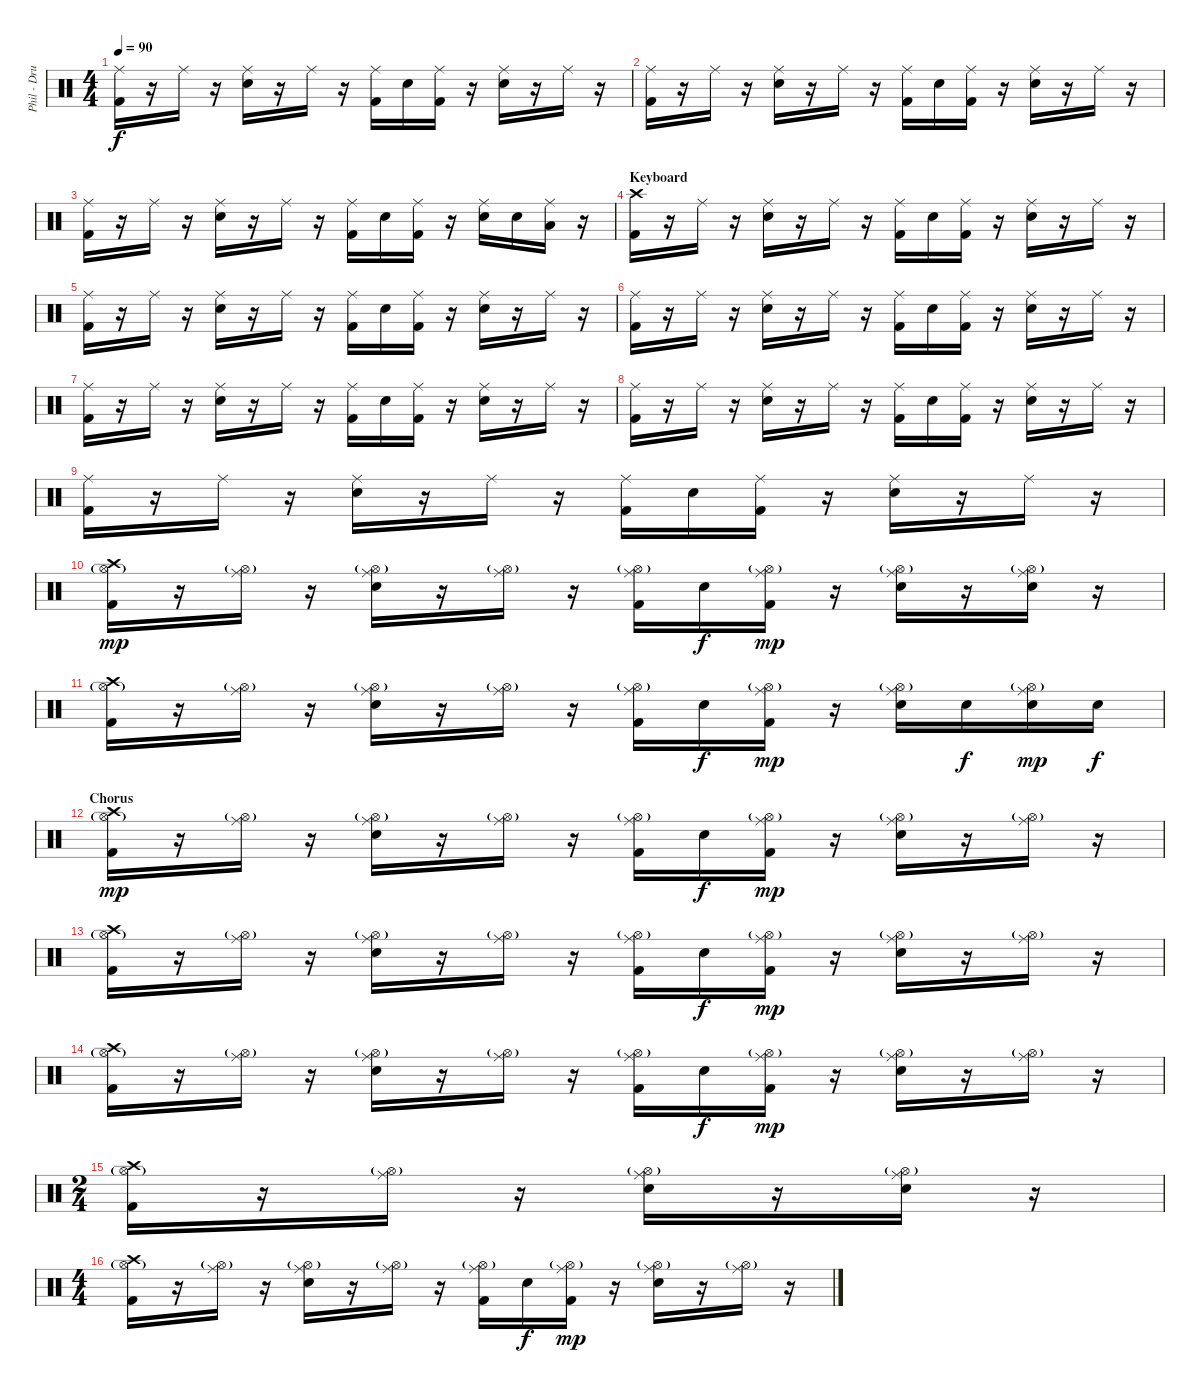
\track ("Phil - Drums" "Phil - Dru") {instrument percussion}
\staff {score}
\articulation defaults
\ts (4 4)
\tempo 90
\clef neutral
\ks c
("Ride (middle)" "Kick (hit) 2").16{dy f} r.16 "Ride (middle)".16 r.16 ("Ride (middle)" "Snare (hit) 2").16 r.16 "Ride (middle)".16 r.16 ("Ride (middle)" "Kick (hit) 2").16 "Snare (hit) 2".16 ("Ride (middle)" "Kick (hit) 2").16 r.16 ("Ride (middle)" "Snare (hit) 2").16 r.16 "Ride (middle)".16 r.16 |
("Ride (middle)" "Kick (hit) 2").16 r.16 "Ride (middle)".16 r.16 ("Ride (middle)" "Snare (hit) 2").16 r.16 "Ride (middle)".16 r.16 ("Ride (middle)" "Kick (hit) 2").16 "Snare (hit) 2".16 ("Ride (middle)" "Kick (hit) 2").16 r.16 ("Ride (middle)" "Snare (hit) 2").16 r.16 "Ride (middle)".16 r.16 |
("Ride (middle)" "Kick (hit) 2").16 r.16 "Ride (middle)".16 r.16 ("Ride (middle)" "Snare (hit) 2").16 r.16 "Ride (middle)".16 r.16 ("Ride (middle)" "Kick (hit) 2").16 "Snare (hit) 2".16 ("Ride (middle)" "Kick (hit) 2").16 r.16 ("Ride (middle)" "Electric Snare (hit)").16 "Electric Snare (hit)".16 ("Ride (middle)" "Low Tom (hit)").16 r.16 |
\section ("" "Keyboard")
("Crash high (hit)" "Kick (hit) 2").16 r.16 "Ride (middle)".16 r.16 ("Ride (middle)" "Snare (hit) 2").16 r.16 "Ride (middle)".16 r.16 ("Ride (middle)" "Kick (hit) 2").16 "Snare (hit) 2".16 ("Ride (middle)" "Kick (hit) 2").16 r.16 ("Ride (middle)" "Snare (hit) 2").16 r.16 "Ride (middle)".16 r.16 |
("Ride (middle)" "Kick (hit) 2").16 r.16 "Ride (middle)".16 r.16 ("Ride (middle)" "Snare (hit) 2").16 r.16 "Ride (middle)".16 r.16 ("Ride (middle)" "Kick (hit) 2").16 "Snare (hit) 2".16 ("Ride (middle)" "Kick (hit) 2").16 r.16 ("Ride (middle)" "Snare (hit) 2").16 r.16 "Ride (middle)".16 r.16 |
("Ride (middle)" "Kick (hit) 2").16 r.16 "Ride (middle)".16 r.16 ("Ride (middle)" "Snare (hit) 2").16 r.16 "Ride (middle)".16 r.16 ("Ride (middle)" "Kick (hit) 2").16 "Snare (hit) 2".16 ("Ride (middle)" "Kick (hit) 2").16 r.16 ("Ride (middle)" "Snare (hit) 2").16 r.16 "Ride (middle)".16 r.16 |
("Ride (middle)" "Kick (hit) 2").16 r.16 "Ride (middle)".16 r.16 ("Ride (middle)" "Snare (hit) 2").16 r.16 "Ride (middle)".16 r.16 ("Ride (middle)" "Kick (hit) 2").16 "Snare (hit) 2".16 ("Ride (middle)" "Kick (hit) 2").16 r.16 ("Ride (middle)" "Snare (hit) 2").16 r.16 "Ride (middle)".16 r.16 |
("Ride (middle)" "Kick (hit) 2").16 r.16 "Ride (middle)".16 r.16 ("Ride (middle)" "Snare (hit) 2").16 r.16 "Ride (middle)".16 r.16 ("Ride (middle)" "Kick (hit) 2").16 "Snare (hit) 2".16 ("Ride (middle)" "Kick (hit) 2").16 r.16 ("Ride (middle)" "Snare (hit) 2").16 r.16 "Ride (middle)".16 r.16 |
("Ride (middle)" "Kick (hit) 2").16 r.16 "Ride (middle)".16 r.16 ("Ride (middle)" "Snare (hit) 2").16 r.16 "Ride (middle)".16 r.16 ("Ride (middle)" "Kick (hit) 2").16 "Snare (hit) 2".16 ("Ride (middle)" "Kick (hit) 2").16 r.16 ("Ride (middle)" "Snare (hit) 2").16 r.16 "Ride (middle)".16 r.16 |
("Crash high (hit)" "Kick (hit) 2" "Hi-Hat (open)"{g}).16{dy mp} r.16 ("Ride (middle)" "Hi-Hat (open)"{g}).16 r.16 ("Ride (middle)" "Electric Snare (hit)" "Hi-Hat (open)"{g}).16 r.16 ("Ride (middle)" "Hi-Hat (open)"{g}).16 r.16 ("Ride (middle)" "Kick (hit) 2" "Hi-Hat (open)"{g}).16 "Electric Snare (hit)".16{dy f} ("Ride (middle)" "Kick (hit) 2" "Hi-Hat (open)"{g}).16{dy mp} r.16 ("Ride (middle)" "Electric Snare (hit)" "Hi-Hat (open)"{g}).16 r.16 ("Ride (middle)" "Electric Snare (hit)" "Hi-Hat (open)"{g}).16 r.16 |
("Crash high (hit)" "Kick (hit) 2" "Hi-Hat (open)"{g}).16 r.16 ("Ride (middle)" "Hi-Hat (open)"{g}).16 r.16 ("Ride (middle)" "Electric Snare (hit)" "Hi-Hat (open)"{g}).16 r.16 ("Ride (middle)" "Hi-Hat (open)"{g}).16 r.16 ("Ride (middle)" "Kick (hit) 2" "Hi-Hat (open)"{g}).16 "Electric Snare (hit)".16{dy f} ("Ride (middle)" "Kick (hit) 2" "Hi-Hat (open)"{g}).16{dy mp} r.16 ("Ride (middle)" "Electric Snare (hit)" "Hi-Hat (open)"{g}).16 "Electric Snare (hit)".16{dy f} ("Ride (middle)" "Electric Snare (hit)" "Hi-Hat (open)"{g}).16{dy mp} "Electric Snare (hit)".16{dy f} |
\section ("" "Chorus")
("Crash high (hit)" "Kick (hit) 2" "Hi-Hat (open)"{g}).16{dy mp} r.16 ("Ride (middle)" "Hi-Hat (open)"{g}).16 r.16 ("Ride (middle)" "Electric Snare (hit)" "Hi-Hat (open)"{g}).16 r.16 ("Ride (middle)" "Hi-Hat (open)"{g}).16 r.16 ("Ride (middle)" "Kick (hit) 2" "Hi-Hat (open)"{g}).16 "Electric Snare (hit)".16{dy f} ("Ride (middle)" "Kick (hit) 2" "Hi-Hat (open)"{g}).16{dy mp} r.16 ("Ride (middle)" "Electric Snare (hit)" "Hi-Hat (open)"{g}).16 r.16 ("Ride (middle)" "Hi-Hat (open)"{g}).16 r.16 |
("Crash high (hit)" "Kick (hit) 2" "Hi-Hat (open)"{g}).16 r.16 ("Ride (middle)" "Hi-Hat (open)"{g}).16 r.16 ("Ride (middle)" "Electric Snare (hit)" "Hi-Hat (open)"{g}).16 r.16 ("Ride (middle)" "Hi-Hat (open)"{g}).16 r.16 ("Ride (middle)" "Kick (hit) 2" "Hi-Hat (open)"{g}).16 "Electric Snare (hit)".16{dy f} ("Ride (middle)" "Kick (hit) 2" "Hi-Hat (open)"{g}).16{dy mp} r.16 ("Ride (middle)" "Electric Snare (hit)" "Hi-Hat (open)"{g}).16 r.16 ("Ride (middle)" "Hi-Hat (open)"{g}).16 r.16 |
("Crash high (hit)" "Kick (hit) 2" "Hi-Hat (open)"{g}).16 r.16 ("Ride (middle)" "Hi-Hat (open)"{g}).16 r.16 ("Ride (middle)" "Electric Snare (hit)" "Hi-Hat (open)"{g}).16 r.16 ("Ride (middle)" "Hi-Hat (open)"{g}).16 r.16 ("Ride (middle)" "Kick (hit) 2" "Hi-Hat (open)"{g}).16 "Electric Snare (hit)".16{dy f} ("Ride (middle)" "Kick (hit) 2" "Hi-Hat (open)"{g}).16{dy mp} r.16 ("Ride (middle)" "Electric Snare (hit)" "Hi-Hat (open)"{g}).16 r.16 ("Ride (middle)" "Hi-Hat (open)"{g}).16 r.16 |
\ts (2 4)
("Crash high (hit)" "Kick (hit) 2" "Hi-Hat (open)"{g}).16 r.16 ("Ride (middle)" "Hi-Hat (open)"{g}).16 r.16 ("Ride (middle)" "Electric Snare (hit)" "Hi-Hat (open)"{g}).16 r.16 ("Ride (middle)" "Electric Snare (hit)" "Hi-Hat (open)"{g}).16 r.16 |
\ts (4 4)
("Crash high (hit)" "Kick (hit) 2" "Hi-Hat (open)"{g}).16 r.16 ("Ride (middle)" "Hi-Hat (open)"{g}).16 r.16 ("Ride (middle)" "Electric Snare (hit)" "Hi-Hat (open)"{g}).16 r.16 ("Ride (middle)" "Hi-Hat (open)"{g}).16 r.16 ("Ride (middle)" "Kick (hit) 2" "Hi-Hat (open)"{g}).16 "Electric Snare (hit)".16{dy f} ("Ride (middle)" "Kick (hit) 2" "Hi-Hat (open)"{g}).16{dy mp} r.16 ("Ride (middle)" "Electric Snare (hit)" "Hi-Hat (open)"{g}).16 r.16 ("Ride (middle)" "Hi-Hat (open)"{g}).16 r.16
